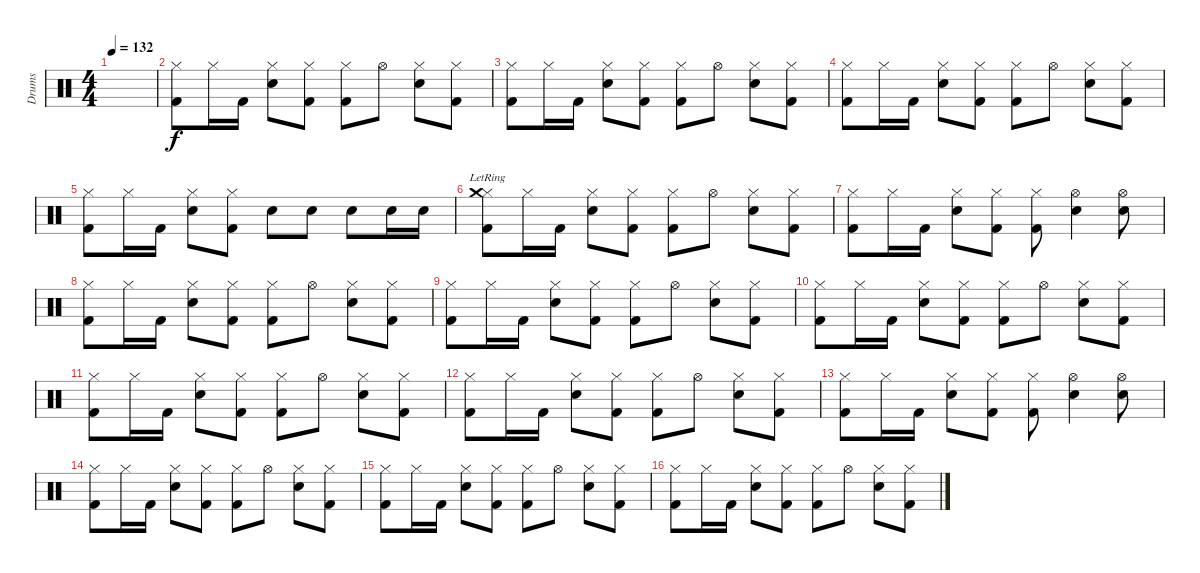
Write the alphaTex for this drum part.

\track ("Drums" "Drums") {instrument percussion}
\staff {score}
\articulation defaults
\ts (4 4)
\tempo 132
\clef neutral
\ks c
|
("Kick (hit) 2" "Hi-Hat (closed)").8 "Hi-Hat (closed)".16 "Kick (hit) 2".16 ("Electric Snare (hit)" "Hi-Hat (closed)").8 ("Kick (hit) 2" "Hi-Hat (closed)").8 ("Kick (hit) 2" "Hi-Hat (closed)").8 "Hi-Hat (open)".8 ("Electric Snare (hit)" "Hi-Hat (closed)").8 ("Kick (hit) 2" "Hi-Hat (closed)").8 |
("Kick (hit) 2" "Hi-Hat (closed)").8 "Hi-Hat (closed)".16 "Kick (hit) 2".16 ("Electric Snare (hit)" "Hi-Hat (closed)").8 ("Kick (hit) 2" "Hi-Hat (closed)").8 ("Kick (hit) 2" "Hi-Hat (closed)").8 "Hi-Hat (open)".8 ("Electric Snare (hit)" "Hi-Hat (closed)").8 ("Kick (hit) 2" "Hi-Hat (closed)").8 |
("Kick (hit) 2" "Hi-Hat (closed)").8 "Hi-Hat (closed)".16 "Kick (hit) 2".16 ("Electric Snare (hit)" "Hi-Hat (closed)").8 ("Kick (hit) 2" "Hi-Hat (closed)").8 ("Kick (hit) 2" "Hi-Hat (closed)").8 "Hi-Hat (open)".8 ("Electric Snare (hit)" "Hi-Hat (closed)").8 ("Kick (hit) 2" "Hi-Hat (closed)").8 |
("Kick (hit) 2" "Hi-Hat (closed)").8 "Hi-Hat (closed)".16 "Kick (hit) 2".16 ("Electric Snare (hit)" "Hi-Hat (closed)").8 ("Kick (hit) 2" "Hi-Hat (closed)").8 "Electric Snare (hit)".8 "Electric Snare (hit)".8 "Electric Snare (hit)".8 "Electric Snare (hit)".16 "Electric Snare (hit)".16 |
("Kick (hit) 2" "Hi-Hat (closed)" "Crash medium (hit)"{lr}).8 "Hi-Hat (closed)".16 "Kick (hit) 2".16 ("Electric Snare (hit)" "Hi-Hat (closed)").8 ("Kick (hit) 2" "Hi-Hat (closed)").8 ("Kick (hit) 2" "Hi-Hat (closed)").8 "Hi-Hat (open)".8 ("Electric Snare (hit)" "Hi-Hat (closed)").8 ("Kick (hit) 2" "Hi-Hat (closed)").8 |
("Kick (hit) 2" "Hi-Hat (closed)").8 "Hi-Hat (closed)".16 "Kick (hit) 2".16 ("Electric Snare (hit)" "Hi-Hat (closed)").8 ("Kick (hit) 2" "Hi-Hat (closed)").8 ("Kick (hit) 2" "Hi-Hat (closed)").8 ("Electric Snare (hit)" "Hi-Hat (open)").4 ("Electric Snare (hit)" "Hi-Hat (open)").8 |
("Kick (hit) 2" "Hi-Hat (closed)").8 "Hi-Hat (closed)".16 "Kick (hit) 2".16 ("Electric Snare (hit)" "Hi-Hat (closed)").8 ("Kick (hit) 2" "Hi-Hat (closed)").8 ("Kick (hit) 2" "Hi-Hat (closed)").8 "Hi-Hat (open)".8 ("Electric Snare (hit)" "Hi-Hat (closed)").8 ("Kick (hit) 2" "Hi-Hat (closed)").8 |
("Kick (hit) 2" "Hi-Hat (closed)").8 "Hi-Hat (closed)".16 "Kick (hit) 2".16 ("Electric Snare (hit)" "Hi-Hat (closed)").8 ("Kick (hit) 2" "Hi-Hat (closed)").8 ("Kick (hit) 2" "Hi-Hat (closed)").8 "Hi-Hat (open)".8 ("Electric Snare (hit)" "Hi-Hat (closed)").8 ("Kick (hit) 2" "Hi-Hat (closed)").8 |
("Kick (hit) 2" "Hi-Hat (closed)").8 "Hi-Hat (closed)".16 "Kick (hit) 2".16 ("Electric Snare (hit)" "Hi-Hat (closed)").8 ("Kick (hit) 2" "Hi-Hat (closed)").8 ("Kick (hit) 2" "Hi-Hat (closed)").8 "Hi-Hat (open)".8 ("Electric Snare (hit)" "Hi-Hat (closed)").8 ("Kick (hit) 2" "Hi-Hat (closed)").8 |
("Kick (hit) 2" "Hi-Hat (closed)").8 "Hi-Hat (closed)".16 "Kick (hit) 2".16 ("Electric Snare (hit)" "Hi-Hat (closed)").8 ("Kick (hit) 2" "Hi-Hat (closed)").8 ("Kick (hit) 2" "Hi-Hat (closed)").8 "Hi-Hat (open)".8 ("Electric Snare (hit)" "Hi-Hat (closed)").8 ("Kick (hit) 2" "Hi-Hat (closed)").8 |
("Kick (hit) 2" "Hi-Hat (closed)").8 "Hi-Hat (closed)".16 "Kick (hit) 2".16 ("Electric Snare (hit)" "Hi-Hat (closed)").8 ("Kick (hit) 2" "Hi-Hat (closed)").8 ("Kick (hit) 2" "Hi-Hat (closed)").8 "Hi-Hat (open)".8 ("Electric Snare (hit)" "Hi-Hat (closed)").8 ("Kick (hit) 2" "Hi-Hat (closed)").8 |
("Kick (hit) 2" "Hi-Hat (closed)").8 "Hi-Hat (closed)".16 "Kick (hit) 2".16 ("Electric Snare (hit)" "Hi-Hat (closed)").8 ("Kick (hit) 2" "Hi-Hat (closed)").8 ("Kick (hit) 2" "Hi-Hat (closed)").8 ("Electric Snare (hit)" "Hi-Hat (open)").4 ("Electric Snare (hit)" "Hi-Hat (open)").8 |
("Kick (hit) 2" "Hi-Hat (closed)").8 "Hi-Hat (closed)".16 "Kick (hit) 2".16 ("Electric Snare (hit)" "Hi-Hat (closed)").8 ("Kick (hit) 2" "Hi-Hat (closed)").8 ("Kick (hit) 2" "Hi-Hat (closed)").8 "Hi-Hat (open)".8 ("Electric Snare (hit)" "Hi-Hat (closed)").8 ("Kick (hit) 2" "Hi-Hat (closed)").8 |
("Kick (hit) 2" "Hi-Hat (closed)").8 "Hi-Hat (closed)".16 "Kick (hit) 2".16 ("Electric Snare (hit)" "Hi-Hat (closed)").8 ("Kick (hit) 2" "Hi-Hat (closed)").8 ("Kick (hit) 2" "Hi-Hat (closed)").8 "Hi-Hat (open)".8 ("Electric Snare (hit)" "Hi-Hat (closed)").8 ("Kick (hit) 2" "Hi-Hat (closed)").8 |
("Kick (hit) 2" "Hi-Hat (closed)").8 "Hi-Hat (closed)".16 "Kick (hit) 2".16 ("Electric Snare (hit)" "Hi-Hat (closed)").8 ("Kick (hit) 2" "Hi-Hat (closed)").8 ("Kick (hit) 2" "Hi-Hat (closed)").8 "Hi-Hat (open)".8 ("Electric Snare (hit)" "Hi-Hat (closed)").8 ("Kick (hit) 2" "Hi-Hat (closed)").8
